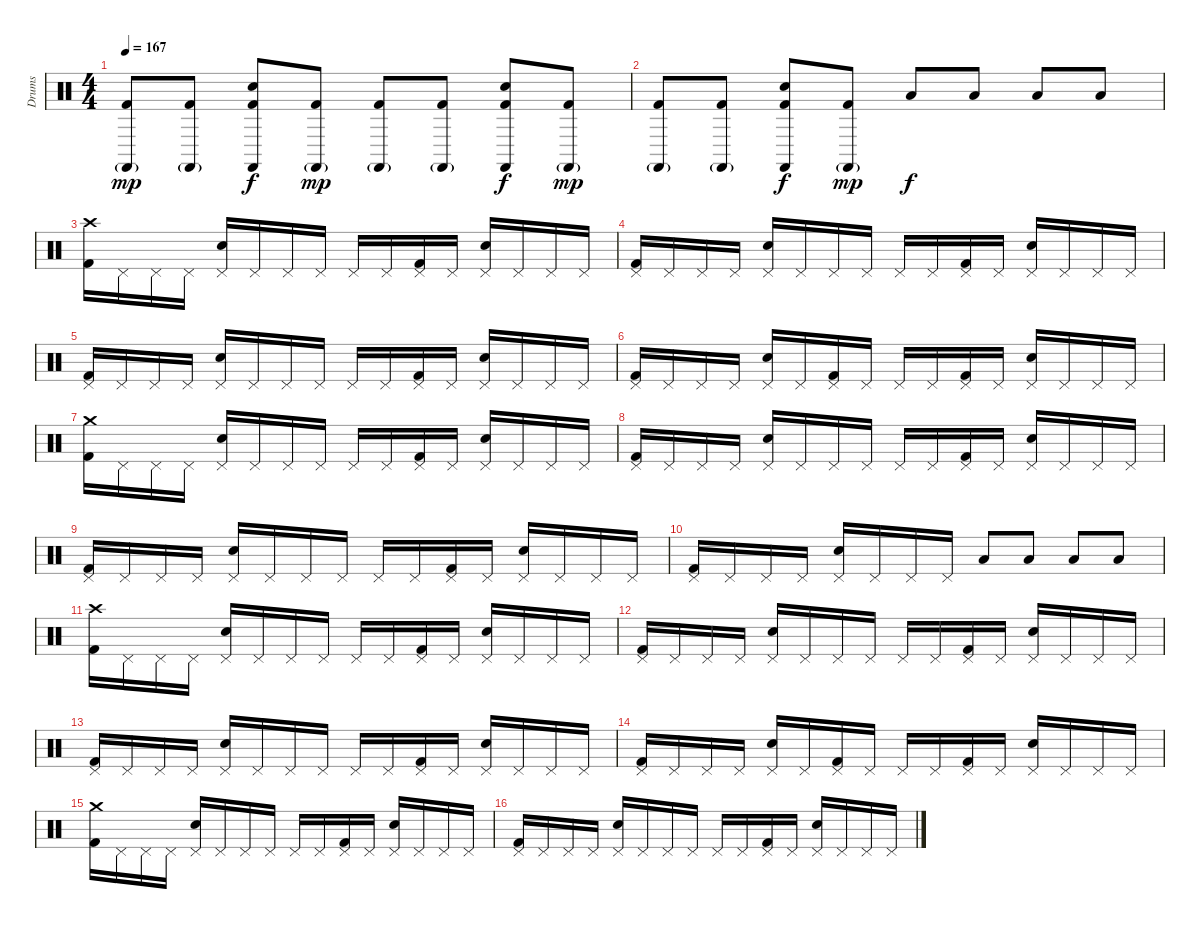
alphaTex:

\track ("Drums" "Drums") {instrument percussion}
\staff {score}
\articulation defaults
\ts (4 4)
\tempo 167
\clef neutral
\ks c
("Castanets (hit)"{g} "Kick (hit) 2").8{dy mp} ("Castanets (hit)"{g} "Kick (hit) 2").8 ("Castanets (hit)" "Snare (hit) 2" "Kick (hit) 2").8{dy f} ("Castanets (hit)"{g} "Kick (hit) 2").8{dy mp} ("Castanets (hit)"{g} "Kick (hit) 2").8 ("Castanets (hit)"{g} "Kick (hit) 2").8 ("Castanets (hit)" "Snare (hit) 2" "Kick (hit) 2").8{dy f} ("Castanets (hit)"{g} "Kick (hit) 2").8{dy mp} |
("Castanets (hit)"{g} "Kick (hit) 2").8 ("Castanets (hit)"{g} "Kick (hit) 2").8 ("Castanets (hit)" "Snare (hit) 2" "Kick (hit) 2").8{dy f} ("Castanets (hit)"{g} "Kick (hit) 2").8{dy mp} "Low Tom (hit)".8{dy f} "Low Tom (hit)".8 "Low Floor Tom (hit)".8 "Low Floor Tom (hit)".8 |
("Crash high (hit)" "Kick (hit) 2").16 "Pedal Hi-Hat (hit)".16 "Pedal Hi-Hat (hit)".16 "Pedal Hi-Hat (hit)".16 ("Pedal Hi-Hat (hit)" "Snare (hit) 2").16 "Pedal Hi-Hat (hit)".16 "Pedal Hi-Hat (hit)".16 "Pedal Hi-Hat (hit)".16 "Pedal Hi-Hat (hit)".16 "Pedal Hi-Hat (hit)".16 ("Pedal Hi-Hat (hit)" "Kick (hit) 2").16 "Pedal Hi-Hat (hit)".16 ("Pedal Hi-Hat (hit)" "Snare (hit) 2").16 "Pedal Hi-Hat (hit)".16 "Pedal Hi-Hat (hit)".16 "Pedal Hi-Hat (hit)".16 |
("Pedal Hi-Hat (hit)" "Kick (hit) 2").16 "Pedal Hi-Hat (hit)".16 "Pedal Hi-Hat (hit)".16 "Pedal Hi-Hat (hit)".16 ("Pedal Hi-Hat (hit)" "Snare (hit) 2").16 "Pedal Hi-Hat (hit)".16 "Pedal Hi-Hat (hit)".16 "Pedal Hi-Hat (hit)".16 "Pedal Hi-Hat (hit)".16 "Pedal Hi-Hat (hit)".16 ("Pedal Hi-Hat (hit)" "Kick (hit) 2").16 "Pedal Hi-Hat (hit)".16 ("Pedal Hi-Hat (hit)" "Snare (hit) 2").16 "Pedal Hi-Hat (hit)".16 "Pedal Hi-Hat (hit)".16 "Pedal Hi-Hat (hit)".16 |
("Pedal Hi-Hat (hit)" "Kick (hit) 2").16 "Pedal Hi-Hat (hit)".16 "Pedal Hi-Hat (hit)".16 "Pedal Hi-Hat (hit)".16 ("Pedal Hi-Hat (hit)" "Snare (hit) 2").16 "Pedal Hi-Hat (hit)".16 "Pedal Hi-Hat (hit)".16 "Pedal Hi-Hat (hit)".16 "Pedal Hi-Hat (hit)".16 "Pedal Hi-Hat (hit)".16 ("Pedal Hi-Hat (hit)" "Kick (hit) 2").16 "Pedal Hi-Hat (hit)".16 ("Pedal Hi-Hat (hit)" "Snare (hit) 2").16 "Pedal Hi-Hat (hit)".16 "Pedal Hi-Hat (hit)".16 "Pedal Hi-Hat (hit)".16 |
("Pedal Hi-Hat (hit)" "Kick (hit) 2").16 "Pedal Hi-Hat (hit)".16 "Pedal Hi-Hat (hit)".16 "Pedal Hi-Hat (hit)".16 ("Pedal Hi-Hat (hit)" "Snare (hit) 2").16 "Pedal Hi-Hat (hit)".16 ("Pedal Hi-Hat (hit)" "Kick (hit) 2").16 "Pedal Hi-Hat (hit)".16 "Pedal Hi-Hat (hit)".16 "Pedal Hi-Hat (hit)".16 ("Pedal Hi-Hat (hit)" "Kick (hit) 2").16 "Pedal Hi-Hat (hit)".16 ("Pedal Hi-Hat (hit)" "Snare (hit) 2").16 "Pedal Hi-Hat (hit)".16 "Pedal Hi-Hat (hit)".16 "Pedal Hi-Hat (hit)".16 |
("Crash medium (hit)" "Kick (hit) 2").16 "Pedal Hi-Hat (hit)".16 "Pedal Hi-Hat (hit)".16 "Pedal Hi-Hat (hit)".16 ("Pedal Hi-Hat (hit)" "Snare (hit) 2").16 "Pedal Hi-Hat (hit)".16 "Pedal Hi-Hat (hit)".16 "Pedal Hi-Hat (hit)".16 "Pedal Hi-Hat (hit)".16 "Pedal Hi-Hat (hit)".16 ("Pedal Hi-Hat (hit)" "Kick (hit) 2").16 "Pedal Hi-Hat (hit)".16 ("Pedal Hi-Hat (hit)" "Snare (hit) 2").16 "Pedal Hi-Hat (hit)".16 "Pedal Hi-Hat (hit)".16 "Pedal Hi-Hat (hit)".16 |
("Pedal Hi-Hat (hit)" "Kick (hit) 2").16 "Pedal Hi-Hat (hit)".16 "Pedal Hi-Hat (hit)".16 "Pedal Hi-Hat (hit)".16 ("Pedal Hi-Hat (hit)" "Snare (hit) 2").16 "Pedal Hi-Hat (hit)".16 "Pedal Hi-Hat (hit)".16 "Pedal Hi-Hat (hit)".16 "Pedal Hi-Hat (hit)".16 "Pedal Hi-Hat (hit)".16 ("Pedal Hi-Hat (hit)" "Kick (hit) 2").16 "Pedal Hi-Hat (hit)".16 ("Pedal Hi-Hat (hit)" "Snare (hit) 2").16 "Pedal Hi-Hat (hit)".16 "Pedal Hi-Hat (hit)".16 "Pedal Hi-Hat (hit)".16 |
("Pedal Hi-Hat (hit)" "Kick (hit) 2").16 "Pedal Hi-Hat (hit)".16 "Pedal Hi-Hat (hit)".16 "Pedal Hi-Hat (hit)".16 ("Pedal Hi-Hat (hit)" "Snare (hit) 2").16 "Pedal Hi-Hat (hit)".16 "Pedal Hi-Hat (hit)".16 "Pedal Hi-Hat (hit)".16 "Pedal Hi-Hat (hit)".16 "Pedal Hi-Hat (hit)".16 ("Pedal Hi-Hat (hit)" "Kick (hit) 2").16 "Pedal Hi-Hat (hit)".16 ("Pedal Hi-Hat (hit)" "Snare (hit) 2").16 "Pedal Hi-Hat (hit)".16 "Pedal Hi-Hat (hit)".16 "Pedal Hi-Hat (hit)".16 |
("Pedal Hi-Hat (hit)" "Kick (hit) 2").16 "Pedal Hi-Hat (hit)".16 "Pedal Hi-Hat (hit)".16 "Pedal Hi-Hat (hit)".16 ("Pedal Hi-Hat (hit)" "Snare (hit) 2").16 "Pedal Hi-Hat (hit)".16 "Pedal Hi-Hat (hit)".16 "Pedal Hi-Hat (hit)".16 "Low Tom (hit)".8 "Low Tom (hit)".8 "Low Floor Tom (hit)".8 "Low Floor Tom (hit)".8 |
("Crash high (hit)" "Kick (hit) 2").16 "Pedal Hi-Hat (hit)".16 "Pedal Hi-Hat (hit)".16 "Pedal Hi-Hat (hit)".16 ("Pedal Hi-Hat (hit)" "Snare (hit) 2").16 "Pedal Hi-Hat (hit)".16 "Pedal Hi-Hat (hit)".16 "Pedal Hi-Hat (hit)".16 "Pedal Hi-Hat (hit)".16 "Pedal Hi-Hat (hit)".16 ("Pedal Hi-Hat (hit)" "Kick (hit) 2").16 "Pedal Hi-Hat (hit)".16 ("Pedal Hi-Hat (hit)" "Snare (hit) 2").16 "Pedal Hi-Hat (hit)".16 "Pedal Hi-Hat (hit)".16 "Pedal Hi-Hat (hit)".16 |
("Pedal Hi-Hat (hit)" "Kick (hit) 2").16 "Pedal Hi-Hat (hit)".16 "Pedal Hi-Hat (hit)".16 "Pedal Hi-Hat (hit)".16 ("Pedal Hi-Hat (hit)" "Snare (hit) 2").16 "Pedal Hi-Hat (hit)".16 "Pedal Hi-Hat (hit)".16 "Pedal Hi-Hat (hit)".16 "Pedal Hi-Hat (hit)".16 "Pedal Hi-Hat (hit)".16 ("Pedal Hi-Hat (hit)" "Kick (hit) 2").16 "Pedal Hi-Hat (hit)".16 ("Pedal Hi-Hat (hit)" "Snare (hit) 2").16 "Pedal Hi-Hat (hit)".16 "Pedal Hi-Hat (hit)".16 "Pedal Hi-Hat (hit)".16 |
("Pedal Hi-Hat (hit)" "Kick (hit) 2").16 "Pedal Hi-Hat (hit)".16 "Pedal Hi-Hat (hit)".16 "Pedal Hi-Hat (hit)".16 ("Pedal Hi-Hat (hit)" "Snare (hit) 2").16 "Pedal Hi-Hat (hit)".16 "Pedal Hi-Hat (hit)".16 "Pedal Hi-Hat (hit)".16 "Pedal Hi-Hat (hit)".16 "Pedal Hi-Hat (hit)".16 ("Pedal Hi-Hat (hit)" "Kick (hit) 2").16 "Pedal Hi-Hat (hit)".16 ("Pedal Hi-Hat (hit)" "Snare (hit) 2").16 "Pedal Hi-Hat (hit)".16 "Pedal Hi-Hat (hit)".16 "Pedal Hi-Hat (hit)".16 |
("Pedal Hi-Hat (hit)" "Kick (hit) 2").16 "Pedal Hi-Hat (hit)".16 "Pedal Hi-Hat (hit)".16 "Pedal Hi-Hat (hit)".16 ("Pedal Hi-Hat (hit)" "Snare (hit) 2").16 "Pedal Hi-Hat (hit)".16 ("Pedal Hi-Hat (hit)" "Kick (hit) 2").16 "Pedal Hi-Hat (hit)".16 "Pedal Hi-Hat (hit)".16 "Pedal Hi-Hat (hit)".16 ("Pedal Hi-Hat (hit)" "Kick (hit) 2").16 "Pedal Hi-Hat (hit)".16 ("Pedal Hi-Hat (hit)" "Snare (hit) 2").16 "Pedal Hi-Hat (hit)".16 "Pedal Hi-Hat (hit)".16 "Pedal Hi-Hat (hit)".16 |
("Crash medium (hit)" "Kick (hit) 2").16 "Pedal Hi-Hat (hit)".16 "Pedal Hi-Hat (hit)".16 "Pedal Hi-Hat (hit)".16 ("Pedal Hi-Hat (hit)" "Snare (hit) 2").16 "Pedal Hi-Hat (hit)".16 "Pedal Hi-Hat (hit)".16 "Pedal Hi-Hat (hit)".16 "Pedal Hi-Hat (hit)".16 "Pedal Hi-Hat (hit)".16 ("Pedal Hi-Hat (hit)" "Kick (hit) 2").16 "Pedal Hi-Hat (hit)".16 ("Pedal Hi-Hat (hit)" "Snare (hit) 2").16 "Pedal Hi-Hat (hit)".16 "Pedal Hi-Hat (hit)".16 "Pedal Hi-Hat (hit)".16 |
("Pedal Hi-Hat (hit)" "Kick (hit) 2").16 "Pedal Hi-Hat (hit)".16 "Pedal Hi-Hat (hit)".16 "Pedal Hi-Hat (hit)".16 ("Pedal Hi-Hat (hit)" "Snare (hit) 2").16 "Pedal Hi-Hat (hit)".16 "Pedal Hi-Hat (hit)".16 "Pedal Hi-Hat (hit)".16 "Pedal Hi-Hat (hit)".16 "Pedal Hi-Hat (hit)".16 ("Pedal Hi-Hat (hit)" "Kick (hit) 2").16 "Pedal Hi-Hat (hit)".16 ("Pedal Hi-Hat (hit)" "Snare (hit) 2").16 "Pedal Hi-Hat (hit)".16 "Pedal Hi-Hat (hit)".16 "Pedal Hi-Hat (hit)".16
